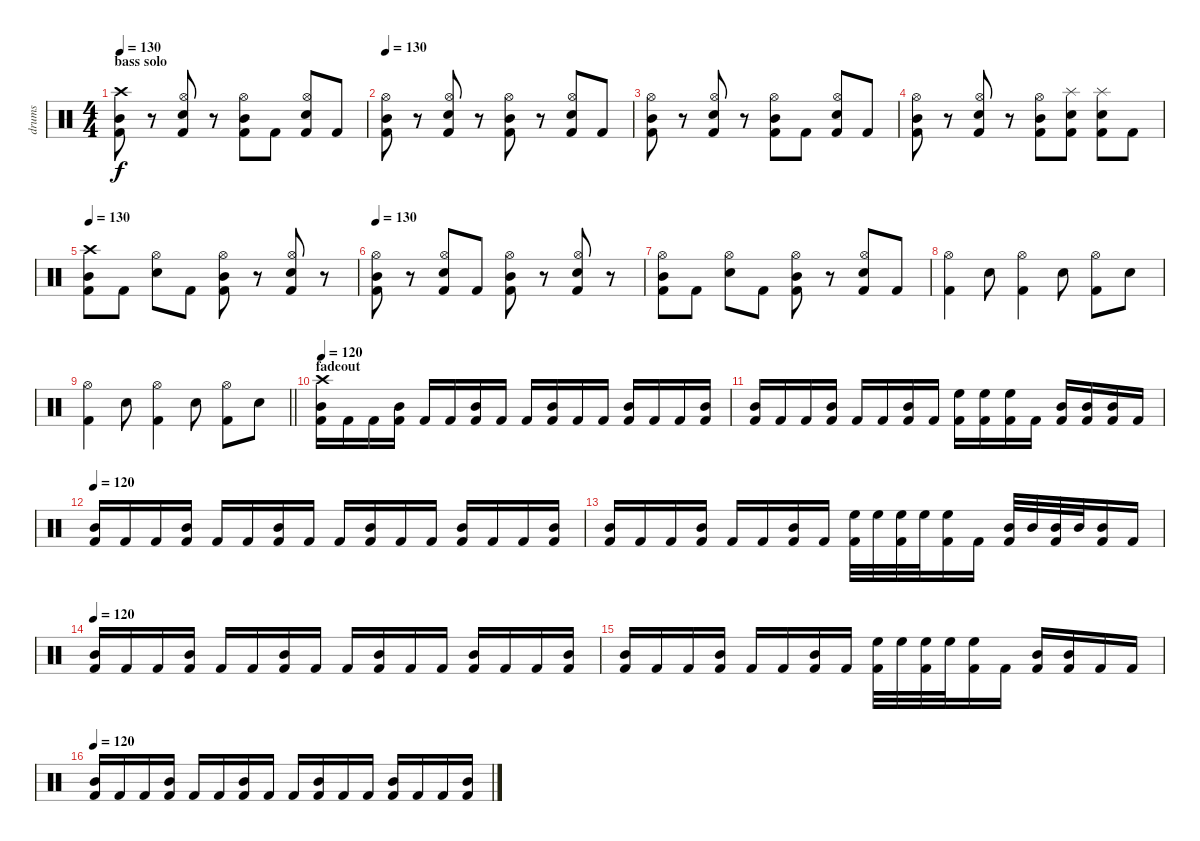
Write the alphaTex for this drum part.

\track ("drums" "drums") {instrument percussion}
\staff {score}
\articulation defaults
\ts (4 4)
\section ("" "bass solo")
\tempo 130
\clef neutral
\ks c
("Crash high (hit)" "Mid Tom (hit)" "Kick (hit) 2").8{dy f} r.8 ("Hi-Hat (open)" "Snare (hit) 2" "Kick (hit) 2").8 r.8 ("Hi-Hat (open)" "Mid Tom (hit)" "Kick (hit) 2").8 "Kick (hit) 2".8 ("Hi-Hat (open)" "Snare (hit) 2" "Kick (hit) 2").8 "Kick (hit) 2".8 |
\tempo 130
("Hi-Hat (open)" "Mid Tom (hit)" "Kick (hit) 2").8 r.8 ("Hi-Hat (open)" "Snare (hit) 2" "Kick (hit) 2").8 r.8 ("Hi-Hat (open)" "Mid Tom (hit)" "Kick (hit) 2").8 r.8 ("Hi-Hat (open)" "Snare (hit) 2" "Kick (hit) 2").8 "Kick (hit) 2".8 |
("Hi-Hat (open)" "Mid Tom (hit)" "Kick (hit) 2").8 r.8 ("Hi-Hat (open)" "Snare (hit) 2" "Kick (hit) 2").8 r.8 ("Hi-Hat (open)" "Mid Tom (hit)" "Kick (hit) 2").8 "Kick (hit) 2".8 ("Hi-Hat (open)" "Snare (hit) 2" "Kick (hit) 2").8 "Kick (hit) 2".8 |
("Hi-Hat (open)" "Mid Tom (hit)" "Kick (hit) 2").8 r.8 ("Hi-Hat (open)" "Snare (hit) 2" "Kick (hit) 2").8 r.8 ("Hi-Hat (open)" "Mid Tom (hit)" "Kick (hit) 2").8 ("Splash (hit)" "Snare (hit) 2" "Kick (hit) 2").8 ("Splash (hit)" "Snare (hit) 2" "Kick (hit) 2").8 "Kick (hit) 2".8 |
\tempo 130
("Crash high (hit)" "Mid Tom (hit)" "Kick (hit) 2").8 "Kick (hit) 2".8 ("Hi-Hat (open)" "Snare (hit) 2").8 "Kick (hit) 2".8 ("Hi-Hat (open)" "Mid Tom (hit)" "Kick (hit) 2").8 r.8 ("Hi-Hat (open)" "Snare (hit) 2" "Kick (hit) 2").8 r.8 |
\tempo 130
("Hi-Hat (open)" "Mid Tom (hit)" "Kick (hit) 2").8 r.8 ("Hi-Hat (open)" "Snare (hit) 2" "Kick (hit) 2").8 "Kick (hit) 2".8 ("Hi-Hat (open)" "Mid Tom (hit)" "Kick (hit) 2").8 r.8 ("Hi-Hat (open)" "Snare (hit) 2" "Kick (hit) 2").8 r.8 |
("Hi-Hat (open)" "Mid Tom (hit)" "Kick (hit) 2").8 "Kick (hit) 2".8 ("Hi-Hat (open)" "Snare (hit) 2").8 "Kick (hit) 2".8 ("Hi-Hat (open)" "Mid Tom (hit)" "Kick (hit) 2").8 r.8 ("Hi-Hat (open)" "Snare (hit) 2" "Kick (hit) 2").8 "Kick (hit) 2".8 |
("Hi-Hat (open)" "Kick (hit) 2").4 "Snare (hit) 2".8 ("Hi-Hat (open)" "Kick (hit) 2").4 "Snare (hit) 2".8 ("Hi-Hat (open)" "Kick (hit) 2").8 "Snare (hit) 2".8 |
\barLineRight lightlight
("Hi-Hat (open)" "Kick (hit) 2").4 "Snare (hit) 2".8 ("Hi-Hat (open)" "Kick (hit) 2").4 "Snare (hit) 2".8 ("Hi-Hat (open)" "Kick (hit) 2").8 "Snare (hit) 2".8 |
\section ("" "fadeout")
\tempo 120
("Crash high (hit)" "Mid Tom (hit)" "Kick (hit) 2").16{volume 7} "Kick (hit) 2".16 "Kick (hit) 2".16 ("Mid Tom (hit)" "Kick (hit) 2").16 "Kick (hit) 2".16 "Kick (hit) 2".16 ("Mid Tom (hit)" "Kick (hit) 2").16 "Kick (hit) 2".16 "Kick (hit) 2".16 ("Mid Tom (hit)" "Kick (hit) 2").16 "Kick (hit) 2".16 "Kick (hit) 2".16 ("Mid Tom (hit)" "Kick (hit) 2").16 "Kick (hit) 2".16 "Kick (hit) 2".16 ("Mid Tom (hit)" "Kick (hit) 2").16 |
("Mid Tom (hit)" "Kick (hit) 2").16 "Kick (hit) 2".16 "Kick (hit) 2".16 ("Mid Tom (hit)" "Kick (hit) 2").16 "Kick (hit) 2".16 "Kick (hit) 2".16 ("Mid Tom (hit)" "Kick (hit) 2").16 "Kick (hit) 2".16 ("High Floor Tom (hit)" "Kick (hit) 2").16 ("High Floor Tom (hit)" "Kick (hit) 2").16 ("High Floor Tom (hit)" "Kick (hit) 2").16 "Kick (hit) 2".16 ("Mid Tom (hit)" "Kick (hit) 2").16 ("Mid Tom (hit)" "Kick (hit) 2").16 ("Mid Tom (hit)" "Kick (hit) 2").16 "Kick (hit) 2".16 |
\tempo 120
("Mid Tom (hit)" "Kick (hit) 2").16 "Kick (hit) 2".16 "Kick (hit) 2".16 ("Mid Tom (hit)" "Kick (hit) 2").16 "Kick (hit) 2".16 "Kick (hit) 2".16 ("Mid Tom (hit)" "Kick (hit) 2").16 "Kick (hit) 2".16 "Kick (hit) 2".16 ("Mid Tom (hit)" "Kick (hit) 2").16 "Kick (hit) 2".16 "Kick (hit) 2".16 ("Mid Tom (hit)" "Kick (hit) 2").16 "Kick (hit) 2".16 "Kick (hit) 2".16 ("Mid Tom (hit)" "Kick (hit) 2").16 |
("Mid Tom (hit)" "Kick (hit) 2").16 "Kick (hit) 2".16 "Kick (hit) 2".16 ("Mid Tom (hit)" "Kick (hit) 2").16 "Kick (hit) 2".16 "Kick (hit) 2".16 ("Mid Tom (hit)" "Kick (hit) 2").16 "Kick (hit) 2".16 ("High Floor Tom (hit)" "Kick (hit) 2").32 "High Floor Tom (hit)".32 ("High Floor Tom (hit)" "Kick (hit) 2").32 "High Floor Tom (hit)".32 ("High Floor Tom (hit)" "Kick (hit) 2").16 "Kick (hit) 2".16 ("Mid Tom (hit)" "Kick (hit) 2").32 "Mid Tom (hit)".32 ("Mid Tom (hit)" "Kick (hit) 2").32 "Mid Tom (hit)".32 ("Mid Tom (hit)" "Kick (hit) 2").16 "Kick (hit) 2".16 |
\tempo 120
("Mid Tom (hit)" "Kick (hit) 2").16{volume 0} "Kick (hit) 2".16 "Kick (hit) 2".16 ("Mid Tom (hit)" "Kick (hit) 2").16 "Kick (hit) 2".16 "Kick (hit) 2".16 ("Mid Tom (hit)" "Kick (hit) 2").16 "Kick (hit) 2".16 "Kick (hit) 2".16 ("Mid Tom (hit)" "Kick (hit) 2").16 "Kick (hit) 2".16 "Kick (hit) 2".16 ("Mid Tom (hit)" "Kick (hit) 2").16 "Kick (hit) 2".16 "Kick (hit) 2".16 ("Mid Tom (hit)" "Kick (hit) 2").16 |
("Mid Tom (hit)" "Kick (hit) 2").16 "Kick (hit) 2".16 "Kick (hit) 2".16 ("Mid Tom (hit)" "Kick (hit) 2").16 "Kick (hit) 2".16 "Kick (hit) 2".16 ("Mid Tom (hit)" "Kick (hit) 2").16 "Kick (hit) 2".16 ("High Floor Tom (hit)" "Kick (hit) 2").32 "High Floor Tom (hit)".32 ("High Floor Tom (hit)" "Kick (hit) 2").32 "High Floor Tom (hit)".32 ("High Floor Tom (hit)" "Kick (hit) 2").16 "Kick (hit) 2".16 ("Mid Tom (hit)" "Kick (hit) 2").16 ("Mid Tom (hit)" "Kick (hit) 2").16 "Kick (hit) 2".16 "Kick (hit) 2".16 |
\tempo 120
("Mid Tom (hit)" "Kick (hit) 2").16 "Kick (hit) 2".16 "Kick (hit) 2".16 ("Mid Tom (hit)" "Kick (hit) 2").16 "Kick (hit) 2".16 "Kick (hit) 2".16 ("Mid Tom (hit)" "Kick (hit) 2").16 "Kick (hit) 2".16 "Kick (hit) 2".16 ("Mid Tom (hit)" "Kick (hit) 2").16 "Kick (hit) 2".16 "Kick (hit) 2".16 ("Mid Tom (hit)" "Kick (hit) 2").16 "Kick (hit) 2".16 "Kick (hit) 2".16 ("Mid Tom (hit)" "Kick (hit) 2").16
